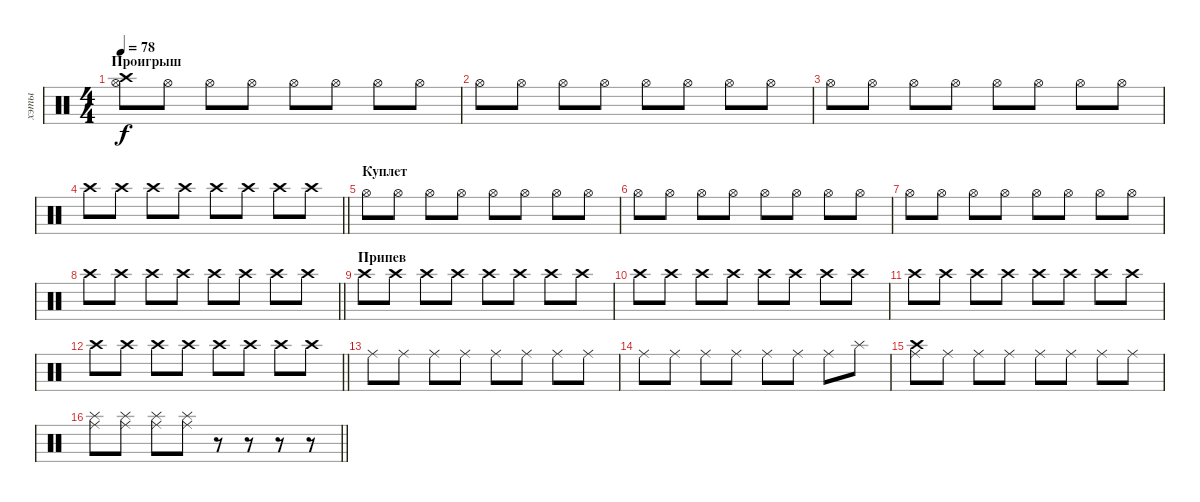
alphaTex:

\track ("хэты" "хэты") {instrument percussion}
\staff {score}
\articulation defaults
\ts (4 4)
\section ("" "Проигрыш")
\tempo 78
\clef neutral
\ks c
("Crash high (hit)" "Hi-Hat (open)").8{dy f} "Hi-Hat (open)".8 "Hi-Hat (open)".8 "Hi-Hat (open)".8 "Hi-Hat (open)".8 "Hi-Hat (open)".8 "Hi-Hat (open)".8 "Hi-Hat (open)".8 |
"Hi-Hat (open)".8 "Hi-Hat (open)".8 "Hi-Hat (open)".8 "Hi-Hat (open)".8 "Hi-Hat (open)".8 "Hi-Hat (open)".8 "Hi-Hat (open)".8 "Hi-Hat (open)".8 |
"Hi-Hat (open)".8 "Hi-Hat (open)".8 "Hi-Hat (open)".8 "Hi-Hat (open)".8 "Hi-Hat (open)".8 "Hi-Hat (open)".8 "Hi-Hat (open)".8 "Hi-Hat (open)".8 |
\barLineRight lightlight "Crash high (hit)".8 "Crash high (hit)".8 "Crash high (hit)".8 "Crash high (hit)".8 "Crash high (hit)".8 "Crash high (hit)".8 "Crash high (hit)".8 "Crash high (hit)".8
|
\section ("" "Куплет")
"Hi-Hat (open)".8 "Hi-Hat (open)".8 "Hi-Hat (open)".8 "Hi-Hat (open)".8 "Hi-Hat (open)".8 "Hi-Hat (open)".8 "Hi-Hat (open)".8 "Hi-Hat (open)".8 |
"Hi-Hat (open)".8 "Hi-Hat (open)".8 "Hi-Hat (open)".8 "Hi-Hat (open)".8 "Hi-Hat (open)".8 "Hi-Hat (open)".8 "Hi-Hat (open)".8 "Hi-Hat (open)".8 |
"Hi-Hat (open)".8 "Hi-Hat (open)".8 "Hi-Hat (open)".8 "Hi-Hat (open)".8 "Hi-Hat (open)".8 "Hi-Hat (open)".8 "Hi-Hat (open)".8 "Hi-Hat (open)".8 |
\barLineRight lightlight "Crash high (hit)".8 "Crash high (hit)".8 "Crash high (hit)".8 "Crash high (hit)".8 "Crash high (hit)".8 "Crash high (hit)".8 "Crash high (hit)".8 "Crash high (hit)".8
|
\section ("" "Припев")
"Crash high (hit)".8 "Crash high (hit)".8 "Crash high (hit)".8 "Crash high (hit)".8 "Crash high (hit)".8 "Crash high (hit)".8 "Crash high (hit)".8 "Crash high (hit)".8 |
"Crash high (hit)".8 "Crash high (hit)".8 "Crash high (hit)".8 "Crash high (hit)".8 "Crash high (hit)".8 "Crash high (hit)".8 "Crash high (hit)".8 "Crash high (hit)".8 |
"Crash high (hit)".8 "Crash high (hit)".8 "Crash high (hit)".8 "Crash high (hit)".8 "Crash high (hit)".8 "Crash high (hit)".8 "Crash high (hit)".8 "Crash high (hit)".8 |
\barLineRight lightlight "Crash high (hit)".8 "Crash high (hit)".8 "Crash high (hit)".8 "Crash high (hit)".8 "Crash high (hit)".8 "Crash high (hit)".8 "Crash high (hit)".8 "Crash high (hit)".8
|
"Ride (middle)".8 "Ride (middle)".8 "Ride (middle)".8 "Ride (middle)".8 "Ride (middle)".8 "Ride (middle)".8 "Ride (middle)".8 "Ride (middle)".8 |
"Ride (middle)".8 "Ride (middle)".8 "Ride (middle)".8 "Ride (middle)".8 "Ride (middle)".8 "Ride (middle)".8 "Ride (middle)".8 "Splash (hit)".8 |
("Crash high (hit)" "Ride (middle)").8 "Ride (middle)".8 "Ride (middle)".8 "Ride (middle)".8 "Ride (middle)".8 "Ride (middle)".8 "Ride (middle)".8 "Ride (middle)".8 |
\barLineRight lightlight
("Ride (middle)" "Splash (hit)").8 ("Ride (middle)" "Splash (hit)").8 ("Ride (middle)" "Splash (hit)").8 ("Ride (middle)" "Splash (hit)").8 r.8 r.8 r.8 r.8
